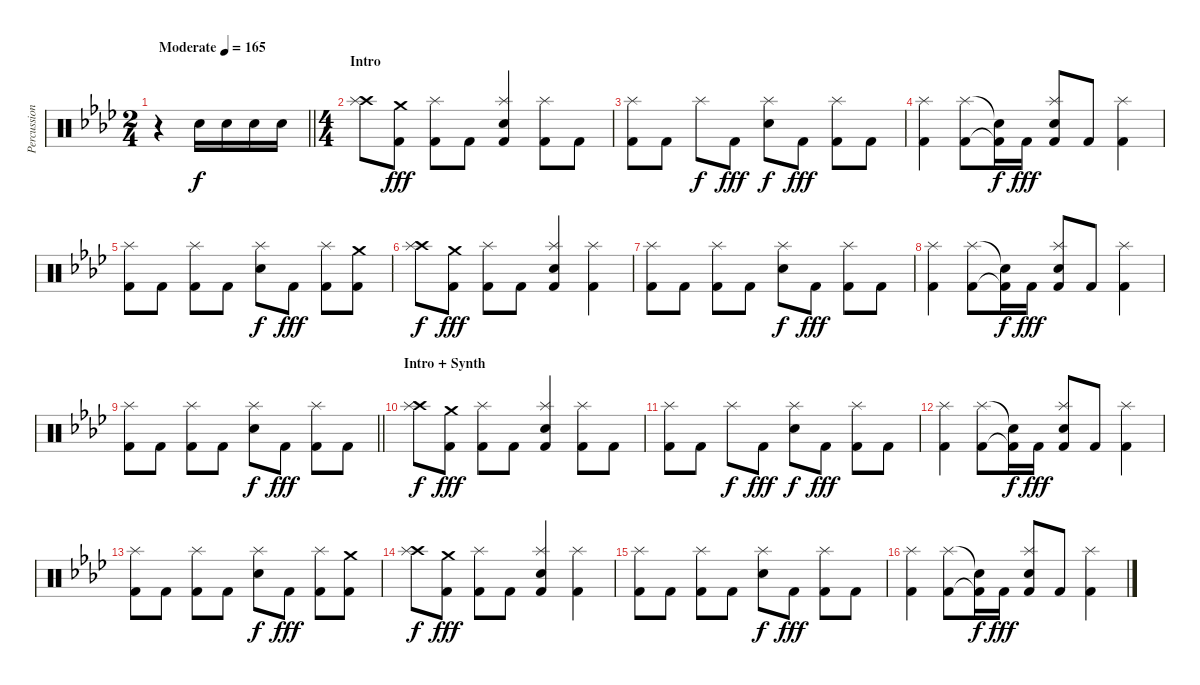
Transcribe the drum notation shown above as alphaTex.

\track ("Percussion" "Percussion") {instrument percussion}
\staff {score}
\articulation defaults
\ts (2 4)
\tempo (165 "Moderate")
\clef neutral
\barLineRight lightlight
\ks ab
r.4{dy f} "Electric Snare (hit)".16 "Electric Snare (hit)".16 "Electric Snare (hit)".16 "Electric Snare (hit)".16 |
\ts (4 4)
\section ("" "Intro")
("Crash high (hit)" "Splash (hit)").8 ("Crash medium (hit)" "Kick (hit) 2").8{dy fff} ("Splash (hit)" "Kick (hit) 2").8 "Kick (hit) 2".8 ("Splash (hit)" "Electric Snare (hit)" "Kick (hit) 2").4 ("Splash (hit)" "Kick (hit) 2").8 "Kick (hit) 2".8 |
("Splash (hit)" "Kick (hit) 2").8 "Kick (hit) 2".8 "Splash (hit)".8{dy f} "Kick (hit) 2".8{dy fff} ("Splash (hit)" "Electric Snare (hit)").8{dy f} "Kick (hit) 2".8{dy fff} ("Splash (hit)" "Kick (hit) 2").8 "Kick (hit) 2".8 |
("Splash (hit)" "Kick (hit) 2").4 ("Splash (hit)" "Kick (hit) 2").8 ("Snare (hit)"{t} "Kick (hit) 2"{t}).16{dy f} "Kick (hit) 2".16{dy fff} ("Splash (hit)" "Electric Snare (hit)" "Kick (hit) 2").8 "Kick (hit) 2".8 ("Splash (hit)" "Kick (hit) 2").4 |
("Splash (hit)" "Kick (hit) 2").8 "Kick (hit) 2".8 ("Splash (hit)" "Kick (hit) 2").8 "Kick (hit) 2".8 ("Splash (hit)" "Electric Snare (hit)").8{dy f} "Kick (hit) 2".8{dy fff} ("Splash (hit)" "Kick (hit) 2").8 ("Crash medium (hit)" "Kick (hit) 2").8 |
("Crash high (hit)" "Splash (hit)").8{dy f} ("Crash medium (hit)" "Kick (hit) 2").8{dy fff} ("Splash (hit)" "Kick (hit) 2").8 "Kick (hit) 2".8 ("Splash (hit)" "Electric Snare (hit)" "Kick (hit) 2").4 ("Splash (hit)" "Kick (hit) 2").4 |
("Splash (hit)" "Kick (hit) 2").8 "Kick (hit) 2".8 ("Splash (hit)" "Kick (hit) 2").8 "Kick (hit) 2".8 ("Splash (hit)" "Electric Snare (hit)").8{dy f} "Kick (hit) 2".8{dy fff} ("Splash (hit)" "Kick (hit) 2").8 "Kick (hit) 2".8 |
("Splash (hit)" "Kick (hit) 2").4 ("Splash (hit)" "Kick (hit) 2").8 ("Snare (hit)"{t} "Kick (hit) 2"{t}).16{dy f} "Kick (hit) 2".16{dy fff} ("Splash (hit)" "Electric Snare (hit)" "Kick (hit) 2").8 "Kick (hit) 2".8 ("Splash (hit)" "Kick (hit) 2").4 |
\barLineRight lightlight
("Splash (hit)" "Kick (hit) 2").8 "Kick (hit) 2".8 ("Splash (hit)" "Kick (hit) 2").8 "Kick (hit) 2".8 ("Splash (hit)" "Electric Snare (hit)").8{dy f} "Kick (hit) 2".8{dy fff} ("Splash (hit)" "Kick (hit) 2").8 "Kick (hit) 2".8 |
\section ("" "Intro + Synth")
("Crash high (hit)" "Splash (hit)").8{dy f} ("Crash medium (hit)" "Kick (hit) 2").8{dy fff} ("Splash (hit)" "Kick (hit) 2").8 "Kick (hit) 2".8 ("Splash (hit)" "Electric Snare (hit)" "Kick (hit) 2").4 ("Splash (hit)" "Kick (hit) 2").8 "Kick (hit) 2".8 |
("Splash (hit)" "Kick (hit) 2").8 "Kick (hit) 2".8 "Splash (hit)".8{dy f} "Kick (hit) 2".8{dy fff} ("Splash (hit)" "Electric Snare (hit)").8{dy f} "Kick (hit) 2".8{dy fff} ("Splash (hit)" "Kick (hit) 2").8 "Kick (hit) 2".8 |
("Splash (hit)" "Kick (hit) 2").4 ("Splash (hit)" "Kick (hit) 2").8 ("Snare (hit)"{t} "Kick (hit) 2"{t}).16{dy f} "Kick (hit) 2".16{dy fff} ("Splash (hit)" "Electric Snare (hit)" "Kick (hit) 2").8 "Kick (hit) 2".8 ("Splash (hit)" "Kick (hit) 2").4 |
("Splash (hit)" "Kick (hit) 2").8 "Kick (hit) 2".8 ("Splash (hit)" "Kick (hit) 2").8 "Kick (hit) 2".8 ("Splash (hit)" "Electric Snare (hit)").8{dy f} "Kick (hit) 2".8{dy fff} ("Splash (hit)" "Kick (hit) 2").8 ("Crash medium (hit)" "Kick (hit) 2").8 |
("Crash high (hit)" "Splash (hit)").8{dy f} ("Crash medium (hit)" "Kick (hit) 2").8{dy fff} ("Splash (hit)" "Kick (hit) 2").8 "Kick (hit) 2".8 ("Splash (hit)" "Electric Snare (hit)" "Kick (hit) 2").4 ("Splash (hit)" "Kick (hit) 2").4 |
("Splash (hit)" "Kick (hit) 2").8 "Kick (hit) 2".8 ("Splash (hit)" "Kick (hit) 2").8 "Kick (hit) 2".8 ("Splash (hit)" "Electric Snare (hit)").8{dy f} "Kick (hit) 2".8{dy fff} ("Splash (hit)" "Kick (hit) 2").8 "Kick (hit) 2".8 |
("Splash (hit)" "Kick (hit) 2").4 ("Splash (hit)" "Kick (hit) 2").8 ("Snare (hit)"{t} "Kick (hit) 2"{t}).16{dy f} "Kick (hit) 2".16{dy fff} ("Splash (hit)" "Electric Snare (hit)" "Kick (hit) 2").8 "Kick (hit) 2".8 ("Splash (hit)" "Kick (hit) 2").4
